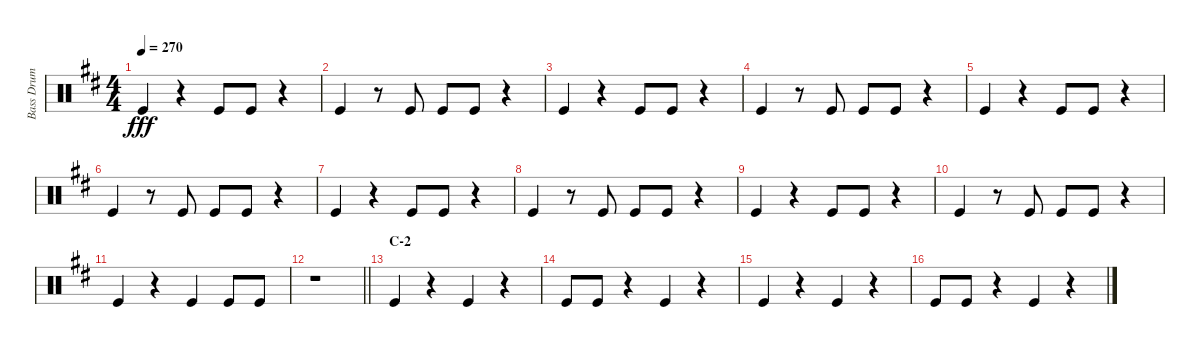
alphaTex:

\track ("Bass Drum" "Bass Drum") {instrument percussion}
\staff {score}
\articulation defaults
\ts (4 4)
\tempo 270
\clef neutral
\ks d "Kick (hit)".4{dy fff}
r.4 "Kick (hit)".8 "Kick (hit)".8 r.4 |
"Kick (hit)".4 r.8 "Kick (hit)".8 "Kick (hit)".8 "Kick (hit)".8 r.4 |
"Kick (hit)".4 r.4 "Kick (hit)".8 "Kick (hit)".8 r.4 |
"Kick (hit)".4 r.8 "Kick (hit)".8 "Kick (hit)".8 "Kick (hit)".8 r.4 |
"Kick (hit)".4 r.4 "Kick (hit)".8 "Kick (hit)".8 r.4 |
"Kick (hit)".4 r.8 "Kick (hit)".8 "Kick (hit)".8 "Kick (hit)".8 r.4 |
"Kick (hit)".4 r.4 "Kick (hit)".8 "Kick (hit)".8 r.4 |
"Kick (hit)".4 r.8 "Kick (hit)".8 "Kick (hit)".8 "Kick (hit)".8 r.4 |
"Kick (hit)".4 r.4 "Kick (hit)".8 "Kick (hit)".8 r.4 |
"Kick (hit)".4 r.8 "Kick (hit)".8 "Kick (hit)".8 "Kick (hit)".8 r.4 |
"Kick (hit)".4 r.4 "Kick (hit)".4 "Kick (hit)".8 "Kick (hit)".8 |
\barLineRight lightlight
r.1 |
\section ("" "C-2")
"Kick (hit)".4 r.4 "Kick (hit)".4 r.4 |
"Kick (hit)".8 "Kick (hit)".8 r.4 "Kick (hit)".4 r.4 |
"Kick (hit)".4 r.4 "Kick (hit)".4 r.4 |
"Kick (hit)".8 "Kick (hit)".8 r.4 "Kick (hit)".4 r.4
